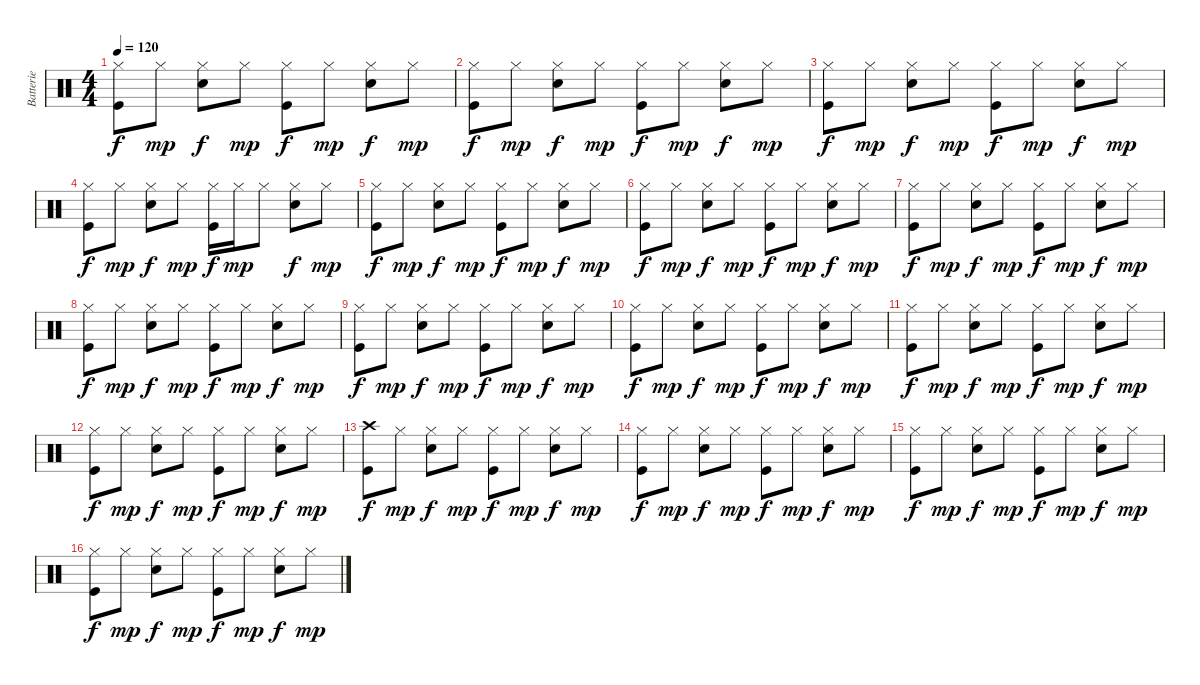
\track ("Batterie" "Batterie") {instrument percussion}
\staff {score}
\articulation defaults
\ts (4 4)
\tempo 120
\clef neutral
\ks c
("Hi-Hat (closed)" "Kick (hit)").8{dy f} "Hi-Hat (closed)".8{dy mp} ("Hi-Hat (closed)" "Snare (hit) 2").8{dy f} "Hi-Hat (closed)".8{dy mp} ("Hi-Hat (closed)" "Kick (hit)").8{dy f} "Hi-Hat (closed)".8{dy mp} ("Hi-Hat (closed)" "Snare (hit) 2").8{dy f} "Hi-Hat (closed)".8{dy mp} |
("Hi-Hat (closed)" "Kick (hit)").8{dy f} "Hi-Hat (closed)".8{dy mp} ("Hi-Hat (closed)" "Snare (hit) 2").8{dy f} "Hi-Hat (closed)".8{dy mp} ("Hi-Hat (closed)" "Kick (hit)").8{dy f} "Hi-Hat (closed)".8{dy mp} ("Hi-Hat (closed)" "Snare (hit) 2").8{dy f} "Hi-Hat (closed)".8{dy mp} |
("Hi-Hat (closed)" "Kick (hit)").8{dy f} "Hi-Hat (closed)".8{dy mp} ("Hi-Hat (closed)" "Snare (hit) 2").8{dy f} "Hi-Hat (closed)".8{dy mp} ("Hi-Hat (closed)" "Kick (hit)").8{dy f} "Hi-Hat (closed)".8{dy mp} ("Hi-Hat (closed)" "Snare (hit) 2").8{dy f} "Hi-Hat (closed)".8{dy mp} |
("Hi-Hat (closed)" "Kick (hit)").8{dy f} "Hi-Hat (closed)".8{dy mp} ("Hi-Hat (closed)" "Snare (hit) 2").8{dy f} "Hi-Hat (closed)".8{dy mp} ("Hi-Hat (closed)" "Kick (hit)").16{dy f} "Hi-Hat (closed)".16{dy mp} "Hi-Hat (closed)".8 ("Hi-Hat (closed)" "Snare (hit) 2").8{dy f} "Hi-Hat (closed)".8{dy mp} |
("Hi-Hat (closed)" "Kick (hit)").8{dy f} "Hi-Hat (closed)".8{dy mp} ("Hi-Hat (closed)" "Snare (hit) 2").8{dy f} "Hi-Hat (closed)".8{dy mp} ("Hi-Hat (closed)" "Kick (hit)").8{dy f} "Hi-Hat (closed)".8{dy mp} ("Hi-Hat (closed)" "Snare (hit) 2").8{dy f} "Hi-Hat (closed)".8{dy mp} |
("Hi-Hat (closed)" "Kick (hit)").8{dy f} "Hi-Hat (closed)".8{dy mp} ("Hi-Hat (closed)" "Snare (hit) 2").8{dy f} "Hi-Hat (closed)".8{dy mp} ("Hi-Hat (closed)" "Kick (hit)").8{dy f} "Hi-Hat (closed)".8{dy mp} ("Hi-Hat (closed)" "Snare (hit) 2").8{dy f} "Hi-Hat (closed)".8{dy mp} |
("Hi-Hat (closed)" "Kick (hit)").8{dy f} "Hi-Hat (closed)".8{dy mp} ("Hi-Hat (closed)" "Snare (hit) 2").8{dy f} "Hi-Hat (closed)".8{dy mp} ("Hi-Hat (closed)" "Kick (hit)").8{dy f} "Hi-Hat (closed)".8{dy mp} ("Hi-Hat (closed)" "Snare (hit) 2").8{dy f} "Hi-Hat (closed)".8{dy mp} |
("Hi-Hat (closed)" "Kick (hit)").8{dy f} "Hi-Hat (closed)".8{dy mp} ("Hi-Hat (closed)" "Snare (hit) 2").8{dy f} "Hi-Hat (closed)".8{dy mp} ("Hi-Hat (closed)" "Kick (hit)").8{dy f} "Hi-Hat (closed)".8{dy mp} ("Hi-Hat (closed)" "Snare (hit) 2").8{dy f} "Hi-Hat (closed)".8{dy mp} |
("Hi-Hat (closed)" "Kick (hit)").8{dy f} "Hi-Hat (closed)".8{dy mp} ("Hi-Hat (closed)" "Snare (hit) 2").8{dy f} "Hi-Hat (closed)".8{dy mp} ("Hi-Hat (closed)" "Kick (hit)").8{dy f} "Hi-Hat (closed)".8{dy mp} ("Hi-Hat (closed)" "Snare (hit) 2").8{dy f} "Hi-Hat (closed)".8{dy mp} |
("Hi-Hat (closed)" "Kick (hit)").8{dy f} "Hi-Hat (closed)".8{dy mp} ("Hi-Hat (closed)" "Snare (hit) 2").8{dy f} "Hi-Hat (closed)".8{dy mp} ("Hi-Hat (closed)" "Kick (hit)").8{dy f} "Hi-Hat (closed)".8{dy mp} ("Hi-Hat (closed)" "Snare (hit) 2").8{dy f} "Hi-Hat (closed)".8{dy mp} |
("Hi-Hat (closed)" "Kick (hit)").8{dy f} "Hi-Hat (closed)".8{dy mp} ("Hi-Hat (closed)" "Snare (hit) 2").8{dy f} "Hi-Hat (closed)".8{dy mp} ("Hi-Hat (closed)" "Kick (hit)").8{dy f} "Hi-Hat (closed)".8{dy mp} ("Hi-Hat (closed)" "Snare (hit) 2").8{dy f} "Hi-Hat (closed)".8{dy mp} |
("Hi-Hat (closed)" "Kick (hit)").8{dy f} "Hi-Hat (closed)".8{dy mp} ("Hi-Hat (closed)" "Snare (hit) 2").8{dy f} "Hi-Hat (closed)".8{dy mp} ("Hi-Hat (closed)" "Kick (hit)").8{dy f} "Hi-Hat (closed)".8{dy mp} ("Hi-Hat (closed)" "Snare (hit) 2").8{dy f} "Hi-Hat (closed)".8{dy mp} |
("Crash high (hit)" "Kick (hit)").8{dy f} "Hi-Hat (closed)".8{dy mp} ("Hi-Hat (closed)" "Snare (hit) 2").8{dy f} "Hi-Hat (closed)".8{dy mp} ("Hi-Hat (closed)" "Kick (hit)").8{dy f} "Hi-Hat (closed)".8{dy mp} ("Hi-Hat (closed)" "Snare (hit) 2").8{dy f} "Hi-Hat (closed)".8{dy mp} |
("Hi-Hat (closed)" "Kick (hit)").8{dy f} "Hi-Hat (closed)".8{dy mp} ("Hi-Hat (closed)" "Snare (hit) 2").8{dy f} "Hi-Hat (closed)".8{dy mp} ("Hi-Hat (closed)" "Kick (hit)").8{dy f} "Hi-Hat (closed)".8{dy mp} ("Hi-Hat (closed)" "Snare (hit) 2").8{dy f} "Hi-Hat (closed)".8{dy mp} |
("Hi-Hat (closed)" "Kick (hit)").8{dy f} "Hi-Hat (closed)".8{dy mp} ("Hi-Hat (closed)" "Snare (hit) 2").8{dy f} "Hi-Hat (closed)".8{dy mp} ("Hi-Hat (closed)" "Kick (hit)").8{dy f} "Hi-Hat (closed)".8{dy mp} ("Hi-Hat (closed)" "Snare (hit) 2").8{dy f} "Hi-Hat (closed)".8{dy mp} |
("Hi-Hat (closed)" "Kick (hit)").8{dy f} "Hi-Hat (closed)".8{dy mp} ("Hi-Hat (closed)" "Snare (hit) 2").8{dy f} "Hi-Hat (closed)".8{dy mp} ("Hi-Hat (closed)" "Kick (hit)").8{dy f} "Hi-Hat (closed)".8{dy mp} ("Hi-Hat (closed)" "Snare (hit) 2").8{dy f} "Hi-Hat (closed)".8{dy mp}
